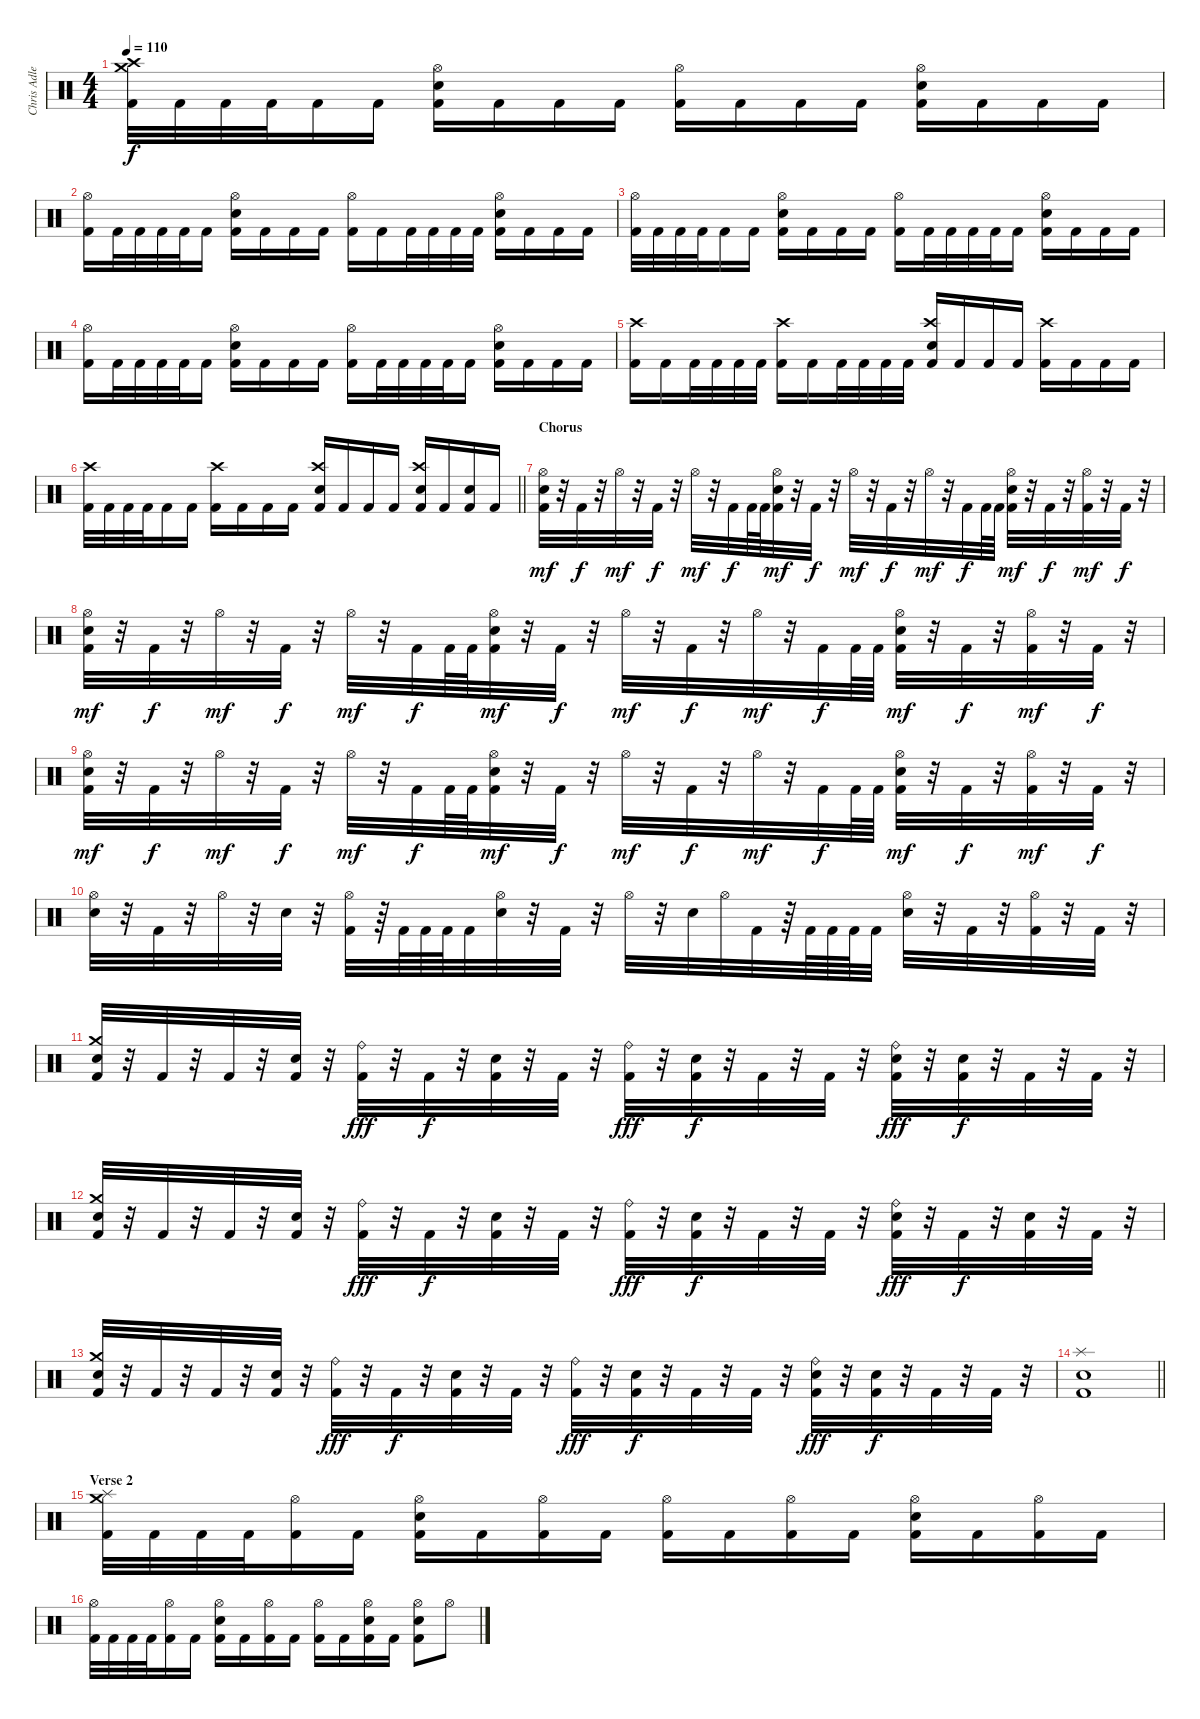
\track ("Chris Adler" "Chris Adle") {instrument percussion}
\staff {score}
\articulation defaults
\ts (4 4)
\tempo 110
\clef neutral
\ks c
("Kick (hit) 2" "Crash high (hit)" "Crash medium (hit)").32{dy f} "Kick (hit) 2".32 "Kick (hit) 2".32 "Kick (hit) 2".32 "Kick (hit) 2".16 "Kick (hit) 2".16 ("Kick (hit) 2" "Electric Snare (hit)" "Hi-Hat (open)").16 "Kick (hit) 2".16 "Kick (hit) 2".16 "Kick (hit) 2".16 ("Kick (hit) 2" "Hi-Hat (open)").16 "Kick (hit) 2".16 "Kick (hit) 2".16 "Kick (hit) 2".16 ("Kick (hit) 2" "Electric Snare (hit)" "Hi-Hat (open)").16 "Kick (hit) 2".16 "Kick (hit) 2".16 "Kick (hit) 2".16 |
("Kick (hit) 2" "Hi-Hat (open)").16 "Kick (hit) 2".32 "Kick (hit) 2".32 "Kick (hit) 2".32 "Kick (hit) 2".32 "Kick (hit) 2".16 ("Kick (hit) 2" "Electric Snare (hit)" "Hi-Hat (open)").16 "Kick (hit) 2".16 "Kick (hit) 2".16 "Kick (hit) 2".16 ("Kick (hit) 2" "Hi-Hat (open)").16 "Kick (hit) 2".16 "Kick (hit) 2".32 "Kick (hit) 2".32 "Kick (hit) 2".32 "Kick (hit) 2".32 ("Kick (hit) 2" "Electric Snare (hit)" "Hi-Hat (open)").16 "Kick (hit) 2".16 "Kick (hit) 2".16 "Kick (hit) 2".16 |
("Kick (hit) 2" "Hi-Hat (open)").32 "Kick (hit) 2".32 "Kick (hit) 2".32 "Kick (hit) 2".32 "Kick (hit) 2".16 "Kick (hit) 2".16 ("Kick (hit) 2" "Electric Snare (hit)" "Hi-Hat (open)").16 "Kick (hit) 2".16 "Kick (hit) 2".16 "Kick (hit) 2".16 ("Kick (hit) 2" "Hi-Hat (open)").16 "Kick (hit) 2".32 "Kick (hit) 2".32 "Kick (hit) 2".32 "Kick (hit) 2".32 "Kick (hit) 2".16 ("Kick (hit) 2" "Electric Snare (hit)" "Hi-Hat (open)").16 "Kick (hit) 2".16 "Kick (hit) 2".16 "Kick (hit) 2".16 |
("Kick (hit) 2" "Hi-Hat (open)").16 "Kick (hit) 2".32 "Kick (hit) 2".32 "Kick (hit) 2".32 "Kick (hit) 2".32 "Kick (hit) 2".16 ("Kick (hit) 2" "Electric Snare (hit)" "Hi-Hat (open)").16 "Kick (hit) 2".16 "Kick (hit) 2".16 "Kick (hit) 2".16 ("Kick (hit) 2" "Hi-Hat (open)").16 "Kick (hit) 2".32 "Kick (hit) 2".32 "Kick (hit) 2".32 "Kick (hit) 2".32 "Kick (hit) 2".16 ("Kick (hit) 2" "Electric Snare (hit)" "Hi-Hat (open)").16 "Kick (hit) 2".16 "Kick (hit) 2".16 "Kick (hit) 2".16 |
("Kick (hit) 2" "Crash high (hit)").16 "Kick (hit) 2".16 "Kick (hit) 2".32 "Kick (hit) 2".32 "Kick (hit) 2".32 "Kick (hit) 2".32 ("Kick (hit) 2" "Crash high (hit)").16 "Kick (hit) 2".16 "Kick (hit) 2".32 "Kick (hit) 2".32 "Kick (hit) 2".32 "Kick (hit) 2".32 ("Kick (hit) 2" "Electric Snare (hit)" "Crash high (hit)").16 "Kick (hit) 2".16 "Kick (hit) 2".16 "Kick (hit) 2".16 ("Kick (hit) 2" "Crash high (hit)").16 "Kick (hit) 2".16 "Kick (hit) 2".16 "Kick (hit) 2".16 |
\barLineRight lightlight
("Kick (hit) 2" "Crash high (hit)").32 "Kick (hit) 2".32 "Kick (hit) 2".32 "Kick (hit) 2".32 "Kick (hit) 2".16 "Kick (hit) 2".16 ("Kick (hit) 2" "Crash high (hit)").16 "Kick (hit) 2".16 "Kick (hit) 2".16 "Kick (hit) 2".16 ("Kick (hit) 2" "Electric Snare (hit)" "Crash high (hit)").16 "Kick (hit) 2".16 "Kick (hit) 2".16 "Kick (hit) 2".16 ("Kick (hit) 2" "Electric Snare (hit)" "Crash high (hit)").16 "Kick (hit) 2".16 ("Kick (hit) 2" "Electric Snare (hit)").16 "Kick (hit) 2".16 |
\section ("" "Chorus")
("Kick (hit) 2" "Electric Snare (hit)" "Hi-Hat (open)").32{dy mf} r.32 "Kick (hit) 2".32{dy f} r.32 "Hi-Hat (open)".32{dy mf} r.32 "Kick (hit) 2".32{dy f} r.32 "Hi-Hat (open)".32{dy mf} r.32 "Kick (hit) 2".32{dy f} "Kick (hit) 2".64 "Kick (hit) 2".64 ("Kick (hit) 2" "Electric Snare (hit)" "Hi-Hat (open)").32{dy mf} r.32 "Kick (hit) 2".32{dy f} r.32 "Hi-Hat (open)".32{dy mf} r.32 "Kick (hit) 2".32{dy f} r.32 "Hi-Hat (open)".32{dy mf} r.32 "Kick (hit) 2".32{dy f} "Kick (hit) 2".64 "Kick (hit) 2".64 ("Kick (hit) 2" "Electric Snare (hit)" "Hi-Hat (open)").32{dy mf} r.32 "Kick (hit) 2".32{dy f} r.32 ("Kick (hit) 2" "Hi-Hat (open)").32{dy mf} r.32 "Kick (hit) 2".32{dy f} r.32 |
("Kick (hit) 2" "Electric Snare (hit)" "Hi-Hat (open)").32{dy mf} r.32 "Kick (hit) 2".32{dy f} r.32 "Hi-Hat (open)".32{dy mf} r.32 "Kick (hit) 2".32{dy f} r.32 "Hi-Hat (open)".32{dy mf} r.32 "Kick (hit) 2".32{dy f} "Kick (hit) 2".64 "Kick (hit) 2".64 ("Kick (hit) 2" "Electric Snare (hit)" "Hi-Hat (open)").32{dy mf} r.32 "Kick (hit) 2".32{dy f} r.32 "Hi-Hat (open)".32{dy mf} r.32 "Kick (hit) 2".32{dy f} r.32 "Hi-Hat (open)".32{dy mf} r.32 "Kick (hit) 2".32{dy f} "Kick (hit) 2".64 "Kick (hit) 2".64 ("Kick (hit) 2" "Electric Snare (hit)" "Hi-Hat (open)").32{dy mf} r.32 "Kick (hit) 2".32{dy f} r.32 ("Kick (hit) 2" "Hi-Hat (open)").32{dy mf} r.32 "Kick (hit) 2".32{dy f} r.32 |
("Kick (hit) 2" "Electric Snare (hit)" "Hi-Hat (open)").32{dy mf} r.32 "Kick (hit) 2".32{dy f} r.32 "Hi-Hat (open)".32{dy mf} r.32 "Kick (hit) 2".32{dy f} r.32 "Hi-Hat (open)".32{dy mf} r.32 "Kick (hit) 2".32{dy f} "Kick (hit) 2".64 "Kick (hit) 2".64 ("Kick (hit) 2" "Electric Snare (hit)" "Hi-Hat (open)").32{dy mf} r.32 "Kick (hit) 2".32{dy f} r.32 "Hi-Hat (open)".32{dy mf} r.32 "Kick (hit) 2".32{dy f} r.32 "Hi-Hat (open)".32{dy mf} r.32 "Kick (hit) 2".32{dy f} "Kick (hit) 2".64 "Kick (hit) 2".64 ("Kick (hit) 2" "Electric Snare (hit)" "Hi-Hat (open)").32{dy mf} r.32 "Kick (hit) 2".32{dy f} r.32 ("Kick (hit) 2" "Hi-Hat (open)").32{dy mf} r.32 "Kick (hit) 2".32{dy f} r.32 |
("Electric Snare (hit)" "Hi-Hat (open)").32 r.32 "Kick (hit) 2".32 r.32 "Hi-Hat (open)".32 r.32 "Electric Snare (hit)".32 r.32 ("Kick (hit) 2" "Hi-Hat (open)").32 r.64 "Kick (hit) 2".64 "Kick (hit) 2".64 "Kick (hit) 2".64 "Kick (hit) 2".32 ("Electric Snare (hit)" "Hi-Hat (open)").32 r.32 "Kick (hit) 2".32 r.32 "Hi-Hat (open)".32 r.32 "Electric Snare (hit)".32 "Hi-Hat (open)".32 "Kick (hit) 2".32 r.64 "Kick (hit) 2".64 "Kick (hit) 2".64 "Kick (hit) 2".64 "Kick (hit) 2".32 ("Electric Snare (hit)" "Hi-Hat (open)").32 r.32 "Kick (hit) 2".32 r.32 ("Kick (hit) 2" "Hi-Hat (open)").32 r.32 "Kick (hit) 2".32 r.32 |
("Kick (hit) 2" "Electric Snare (hit)" "Crash medium (hit)").32 r.32 "Kick (hit) 2".32 r.32 "Kick (hit) 2".32 r.32 ("Kick (hit) 2" "Electric Snare (hit)").32 r.32 ("Kick (hit) 2" "Ride (bell)").32{dy fff} r.32 "Kick (hit) 2".32{dy f} r.32 ("Kick (hit) 2" "Electric Snare (hit)").32 r.32 "Kick (hit) 2".32 r.32 ("Kick (hit) 2" "Ride (bell)").32{dy fff} r.32 ("Kick (hit) 2" "Electric Snare (hit)").32{dy f} r.32 "Kick (hit) 2".32 r.32 "Kick (hit) 2".32 r.32 ("Kick (hit) 2" "Electric Snare (hit)" "Ride (bell)").32{dy fff} r.32 ("Kick (hit) 2" "Electric Snare (hit)").32{dy f} r.32 "Kick (hit) 2".32 r.32 "Kick (hit) 2".32 r.32 |
("Kick (hit) 2" "Electric Snare (hit)" "Crash medium (hit)").32 r.32 "Kick (hit) 2".32 r.32 "Kick (hit) 2".32 r.32 ("Kick (hit) 2" "Electric Snare (hit)").32 r.32 ("Kick (hit) 2" "Ride (bell)").32{dy fff} r.32 "Kick (hit) 2".32{dy f} r.32 ("Kick (hit) 2" "Electric Snare (hit)").32 r.32 "Kick (hit) 2".32 r.32 ("Kick (hit) 2" "Ride (bell)").32{dy fff} r.32 ("Kick (hit) 2" "Electric Snare (hit)").32{dy f} r.32 "Kick (hit) 2".32 r.32 "Kick (hit) 2".32 r.32 ("Kick (hit) 2" "Electric Snare (hit)" "Ride (bell)").32{dy fff} r.32 "Kick (hit) 2".32{dy f} r.32 ("Kick (hit) 2" "Electric Snare (hit)").32 r.32 "Kick (hit) 2".32 r.32 |
("Kick (hit) 2" "Electric Snare (hit)" "Crash medium (hit)").32 r.32 "Kick (hit) 2".32 r.32 "Kick (hit) 2".32 r.32 ("Kick (hit) 2" "Electric Snare (hit)").32 r.32 ("Kick (hit) 2" "Ride (bell)").32{dy fff} r.32 "Kick (hit) 2".32{dy f} r.32 ("Kick (hit) 2" "Electric Snare (hit)").32 r.32 "Kick (hit) 2".32 r.32 ("Kick (hit) 2" "Ride (bell)").32{dy fff} r.32 ("Kick (hit) 2" "Electric Snare (hit)").32{dy f} r.32 "Kick (hit) 2".32 r.32 "Kick (hit) 2".32 r.32 ("Kick (hit) 2" "Electric Snare (hit)" "Ride (bell)").32{dy fff} r.32 ("Kick (hit) 2" "Electric Snare (hit)").32{dy f} r.32 "Kick (hit) 2".32 r.32 "Kick (hit) 2".32 r.32 |
\barLineRight lightlight
("Kick (hit) 2" "Electric Snare (hit)" "Splash (hit)").1 |
\section ("" "Verse 2")
("Kick (hit) 2" "Splash (hit)" "Crash medium (hit)").32 "Kick (hit) 2".32 "Kick (hit) 2".32 "Kick (hit) 2".32 ("Kick (hit) 2" "Hi-Hat (open)").16 "Kick (hit) 2".16 ("Kick (hit) 2" "Electric Snare (hit)" "Hi-Hat (open)").16 "Kick (hit) 2".16 ("Kick (hit) 2" "Hi-Hat (open)").16 "Kick (hit) 2".16 ("Kick (hit) 2" "Hi-Hat (open)").16 "Kick (hit) 2".16 ("Kick (hit) 2" "Hi-Hat (open)").16 "Kick (hit) 2".16 ("Kick (hit) 2" "Electric Snare (hit)" "Hi-Hat (open)").16 "Kick (hit) 2".16 ("Kick (hit) 2" "Hi-Hat (open)").16 "Kick (hit) 2".16 |
("Kick (hit) 2" "Hi-Hat (open)").32 "Kick (hit) 2".32 "Kick (hit) 2".32 "Kick (hit) 2".32 ("Kick (hit) 2" "Hi-Hat (open)").16 "Kick (hit) 2".16 ("Kick (hit) 2" "Electric Snare (hit)" "Hi-Hat (open)").16 "Kick (hit) 2".16 ("Kick (hit) 2" "Hi-Hat (open)").16 "Kick (hit) 2".16 ("Kick (hit) 2" "Hi-Hat (open)").16 "Kick (hit) 2".16 ("Kick (hit) 2" "Electric Snare (hit)" "Hi-Hat (open)").16 "Kick (hit) 2".16 ("Kick (hit) 2" "Electric Snare (hit)" "Hi-Hat (open)").8 "Hi-Hat (open)".8
